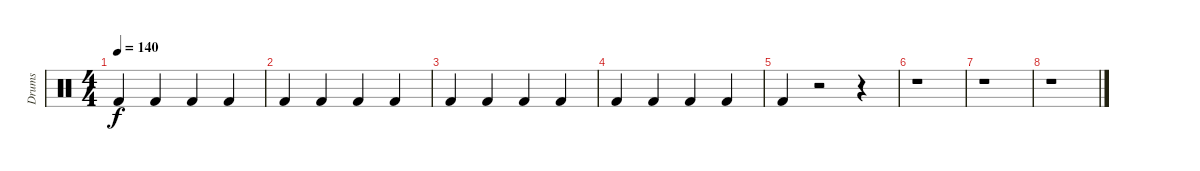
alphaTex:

\track ("Drums" "Drums") {instrument percussion}
\staff {score}
\articulation defaults
\ts (4 4)
\tempo 140
\clef neutral
\ks c "Kick (hit) 2".4{dy f} "Kick (hit) 2".4 "Kick (hit) 2".4 "Kick (hit) 2".4
|
"Kick (hit) 2".4 "Kick (hit) 2".4 "Kick (hit) 2".4 "Kick (hit) 2".4 |
"Kick (hit) 2".4 "Kick (hit) 2".4 "Kick (hit) 2".4 "Kick (hit) 2".4 |
"Kick (hit) 2".4 "Kick (hit) 2".4 "Kick (hit) 2".4 "Kick (hit) 2".4 |
"Kick (hit) 2".4 r.2 r.4 |
r.1 |
r.1 |
r.1
